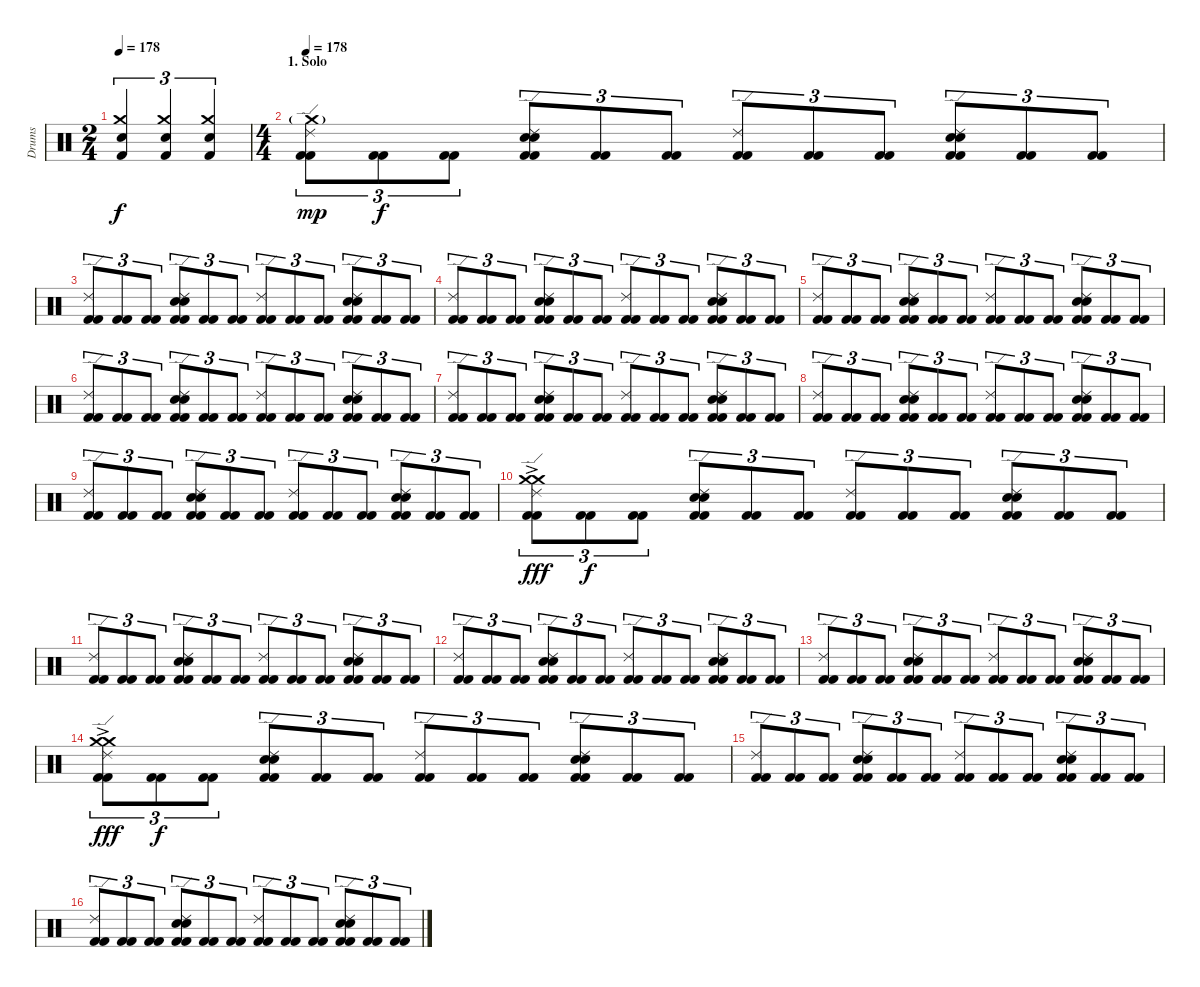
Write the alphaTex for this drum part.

\track ("Drums" "Drums") {instrument percussion}
\staff {score}
\articulation defaults
\ts (2 4)
\tempo 178
\clef neutral
\ks c
("Electric Snare (hit)" "Crash medium (hit)" "Kick (hit) 2").4{tu (3 2) dy f} ("Electric Snare (hit)" "Crash medium (hit)" "Kick (hit) 2").4{tu (3 2)} ("Electric Snare (hit)" "Crash medium (hit)" "Kick (hit) 2").4{tu (3 2)} |
\ts (4 4)
\section ("" "1. Solo")
\tempo 178
("Crash medium (hit)"{g} "Ride (edge) 2" "Kick (hit) 2" "Kick (hit) 2").8{tu (3 2) dy mp} ("Kick (hit) 2" "Kick (hit) 2").8{tu (3 2) dy f} ("Kick (hit) 2" "Kick (hit) 2").8{tu (3 2)} ("Ride (edge) 2" "Snare (hit) 2" "Electric Snare (hit)" "Kick (hit) 2" "Kick (hit) 2").8{tu (3 2)} ("Kick (hit) 2" "Kick (hit) 2").8{tu (3 2)} ("Kick (hit) 2" "Kick (hit) 2").8{tu (3 2)} ("Ride (edge) 2" "Kick (hit) 2" "Kick (hit) 2").8{tu (3 2)} ("Kick (hit) 2" "Kick (hit) 2").8{tu (3 2)} ("Kick (hit) 2" "Kick (hit) 2").8{tu (3 2)} ("Ride (edge) 2" "Snare (hit) 2" "Electric Snare (hit)" "Kick (hit) 2" "Kick (hit) 2").8{tu (3 2)} ("Kick (hit) 2" "Kick (hit) 2").8{tu (3 2)} ("Kick (hit) 2" "Kick (hit) 2").8{tu (3 2)} |
("Ride (edge) 2" "Kick (hit) 2" "Kick (hit) 2").8{tu (3 2)} ("Kick (hit) 2" "Kick (hit) 2").8{tu (3 2)} ("Kick (hit) 2" "Kick (hit) 2").8{tu (3 2)} ("Ride (edge) 2" "Snare (hit) 2" "Electric Snare (hit)" "Kick (hit) 2" "Kick (hit) 2").8{tu (3 2)} ("Kick (hit) 2" "Kick (hit) 2").8{tu (3 2)} ("Kick (hit) 2" "Kick (hit) 2").8{tu (3 2)} ("Ride (edge) 2" "Kick (hit) 2" "Kick (hit) 2").8{tu (3 2)} ("Kick (hit) 2" "Kick (hit) 2").8{tu (3 2)} ("Kick (hit) 2" "Kick (hit) 2").8{tu (3 2)} ("Ride (edge) 2" "Snare (hit) 2" "Electric Snare (hit)" "Kick (hit) 2" "Kick (hit) 2").8{tu (3 2)} ("Kick (hit) 2" "Kick (hit) 2").8{tu (3 2)} ("Kick (hit) 2" "Kick (hit) 2").8{tu (3 2)} |
("Ride (edge) 2" "Kick (hit) 2" "Kick (hit) 2").8{tu (3 2)} ("Kick (hit) 2" "Kick (hit) 2").8{tu (3 2)} ("Kick (hit) 2" "Kick (hit) 2").8{tu (3 2)} ("Ride (edge) 2" "Snare (hit) 2" "Electric Snare (hit)" "Kick (hit) 2" "Kick (hit) 2").8{tu (3 2)} ("Kick (hit) 2" "Kick (hit) 2").8{tu (3 2)} ("Kick (hit) 2" "Kick (hit) 2").8{tu (3 2)} ("Ride (edge) 2" "Kick (hit) 2" "Kick (hit) 2").8{tu (3 2)} ("Kick (hit) 2" "Kick (hit) 2").8{tu (3 2)} ("Kick (hit) 2" "Kick (hit) 2").8{tu (3 2)} ("Ride (edge) 2" "Snare (hit) 2" "Electric Snare (hit)" "Kick (hit) 2" "Kick (hit) 2").8{tu (3 2)} ("Kick (hit) 2" "Kick (hit) 2").8{tu (3 2)} ("Kick (hit) 2" "Kick (hit) 2").8{tu (3 2)} |
("Ride (edge) 2" "Kick (hit) 2" "Kick (hit) 2").8{tu (3 2)} ("Kick (hit) 2" "Kick (hit) 2").8{tu (3 2)} ("Kick (hit) 2" "Kick (hit) 2").8{tu (3 2)} ("Ride (edge) 2" "Snare (hit) 2" "Electric Snare (hit)" "Kick (hit) 2" "Kick (hit) 2").8{tu (3 2)} ("Kick (hit) 2" "Kick (hit) 2").8{tu (3 2)} ("Kick (hit) 2" "Kick (hit) 2").8{tu (3 2)} ("Ride (edge) 2" "Kick (hit) 2" "Kick (hit) 2").8{tu (3 2)} ("Kick (hit) 2" "Kick (hit) 2").8{tu (3 2)} ("Kick (hit) 2" "Kick (hit) 2").8{tu (3 2)} ("Ride (edge) 2" "Snare (hit) 2" "Electric Snare (hit)" "Kick (hit) 2" "Kick (hit) 2").8{tu (3 2)} ("Kick (hit) 2" "Kick (hit) 2").8{tu (3 2)} ("Kick (hit) 2" "Kick (hit) 2").8{tu (3 2)} |
("Ride (edge) 2" "Kick (hit) 2" "Kick (hit) 2").8{tu (3 2)} ("Kick (hit) 2" "Kick (hit) 2").8{tu (3 2)} ("Kick (hit) 2" "Kick (hit) 2").8{tu (3 2)} ("Ride (edge) 2" "Snare (hit) 2" "Electric Snare (hit)" "Kick (hit) 2" "Kick (hit) 2").8{tu (3 2)} ("Kick (hit) 2" "Kick (hit) 2").8{tu (3 2)} ("Kick (hit) 2" "Kick (hit) 2").8{tu (3 2)} ("Ride (edge) 2" "Kick (hit) 2" "Kick (hit) 2").8{tu (3 2)} ("Kick (hit) 2" "Kick (hit) 2").8{tu (3 2)} ("Kick (hit) 2" "Kick (hit) 2").8{tu (3 2)} ("Ride (edge) 2" "Snare (hit) 2" "Electric Snare (hit)" "Kick (hit) 2" "Kick (hit) 2").8{tu (3 2)} ("Kick (hit) 2" "Kick (hit) 2").8{tu (3 2)} ("Kick (hit) 2" "Kick (hit) 2").8{tu (3 2)} |
("Ride (edge) 2" "Kick (hit) 2" "Kick (hit) 2").8{tu (3 2)} ("Kick (hit) 2" "Kick (hit) 2").8{tu (3 2)} ("Kick (hit) 2" "Kick (hit) 2").8{tu (3 2)} ("Ride (edge) 2" "Snare (hit) 2" "Electric Snare (hit)" "Kick (hit) 2" "Kick (hit) 2").8{tu (3 2)} ("Kick (hit) 2" "Kick (hit) 2").8{tu (3 2)} ("Kick (hit) 2" "Kick (hit) 2").8{tu (3 2)} ("Ride (edge) 2" "Kick (hit) 2" "Kick (hit) 2").8{tu (3 2)} ("Kick (hit) 2" "Kick (hit) 2").8{tu (3 2)} ("Kick (hit) 2" "Kick (hit) 2").8{tu (3 2)} ("Ride (edge) 2" "Snare (hit) 2" "Electric Snare (hit)" "Kick (hit) 2" "Kick (hit) 2").8{tu (3 2)} ("Kick (hit) 2" "Kick (hit) 2").8{tu (3 2)} ("Kick (hit) 2" "Kick (hit) 2").8{tu (3 2)} |
("Ride (edge) 2" "Kick (hit) 2" "Kick (hit) 2").8{tu (3 2)} ("Kick (hit) 2" "Kick (hit) 2").8{tu (3 2)} ("Kick (hit) 2" "Kick (hit) 2").8{tu (3 2)} ("Ride (edge) 2" "Snare (hit) 2" "Electric Snare (hit)" "Kick (hit) 2" "Kick (hit) 2").8{tu (3 2)} ("Kick (hit) 2" "Kick (hit) 2").8{tu (3 2)} ("Kick (hit) 2" "Kick (hit) 2").8{tu (3 2)} ("Ride (edge) 2" "Kick (hit) 2" "Kick (hit) 2").8{tu (3 2)} ("Kick (hit) 2" "Kick (hit) 2").8{tu (3 2)} ("Kick (hit) 2" "Kick (hit) 2").8{tu (3 2)} ("Ride (edge) 2" "Snare (hit) 2" "Electric Snare (hit)" "Kick (hit) 2" "Kick (hit) 2").8{tu (3 2)} ("Kick (hit) 2" "Kick (hit) 2").8{tu (3 2)} ("Kick (hit) 2" "Kick (hit) 2").8{tu (3 2)} |
("Ride (edge) 2" "Kick (hit) 2" "Kick (hit) 2").8{tu (3 2)} ("Kick (hit) 2" "Kick (hit) 2").8{tu (3 2)} ("Kick (hit) 2" "Kick (hit) 2").8{tu (3 2)} ("Ride (edge) 2" "Snare (hit) 2" "Electric Snare (hit)" "Kick (hit) 2" "Kick (hit) 2").8{tu (3 2)} ("Kick (hit) 2" "Kick (hit) 2").8{tu (3 2)} ("Kick (hit) 2" "Kick (hit) 2").8{tu (3 2)} ("Ride (edge) 2" "Kick (hit) 2" "Kick (hit) 2").8{tu (3 2)} ("Kick (hit) 2" "Kick (hit) 2").8{tu (3 2)} ("Kick (hit) 2" "Kick (hit) 2").8{tu (3 2)} ("Ride (edge) 2" "Snare (hit) 2" "Electric Snare (hit)" "Kick (hit) 2" "Kick (hit) 2").8{tu (3 2)} ("Kick (hit) 2" "Kick (hit) 2").8{tu (3 2)} ("Kick (hit) 2" "Kick (hit) 2").8{tu (3 2)} |
("Crash medium (hit)"{ac} "Crash medium (hit)"{ac} "Ride (edge) 2" "Kick (hit) 2" "Kick (hit) 2").8{tu (3 2) dy fff} ("Kick (hit) 2" "Kick (hit) 2").8{tu (3 2) dy f} ("Kick (hit) 2" "Kick (hit) 2").8{tu (3 2)} ("Ride (edge) 2" "Snare (hit) 2" "Electric Snare (hit)" "Kick (hit) 2" "Kick (hit) 2").8{tu (3 2)} ("Kick (hit) 2" "Kick (hit) 2").8{tu (3 2)} ("Kick (hit) 2" "Kick (hit) 2").8{tu (3 2)} ("Ride (edge) 2" "Kick (hit) 2" "Kick (hit) 2").8{tu (3 2)} ("Kick (hit) 2" "Kick (hit) 2").8{tu (3 2)} ("Kick (hit) 2" "Kick (hit) 2").8{tu (3 2)} ("Ride (edge) 2" "Snare (hit) 2" "Electric Snare (hit)" "Kick (hit) 2" "Kick (hit) 2").8{tu (3 2)} ("Kick (hit) 2" "Kick (hit) 2").8{tu (3 2)} ("Kick (hit) 2" "Kick (hit) 2").8{tu (3 2)} |
("Ride (edge) 2" "Kick (hit) 2" "Kick (hit) 2").8{tu (3 2)} ("Kick (hit) 2" "Kick (hit) 2").8{tu (3 2)} ("Kick (hit) 2" "Kick (hit) 2").8{tu (3 2)} ("Ride (edge) 2" "Snare (hit) 2" "Electric Snare (hit)" "Kick (hit) 2" "Kick (hit) 2").8{tu (3 2)} ("Kick (hit) 2" "Kick (hit) 2").8{tu (3 2)} ("Kick (hit) 2" "Kick (hit) 2").8{tu (3 2)} ("Ride (edge) 2" "Kick (hit) 2" "Kick (hit) 2").8{tu (3 2)} ("Kick (hit) 2" "Kick (hit) 2").8{tu (3 2)} ("Kick (hit) 2" "Kick (hit) 2").8{tu (3 2)} ("Ride (edge) 2" "Snare (hit) 2" "Electric Snare (hit)" "Kick (hit) 2" "Kick (hit) 2").8{tu (3 2)} ("Kick (hit) 2" "Kick (hit) 2").8{tu (3 2)} ("Kick (hit) 2" "Kick (hit) 2").8{tu (3 2)} |
("Ride (edge) 2" "Kick (hit) 2" "Kick (hit) 2").8{tu (3 2)} ("Kick (hit) 2" "Kick (hit) 2").8{tu (3 2)} ("Kick (hit) 2" "Kick (hit) 2").8{tu (3 2)} ("Ride (edge) 2" "Snare (hit) 2" "Electric Snare (hit)" "Kick (hit) 2" "Kick (hit) 2").8{tu (3 2)} ("Kick (hit) 2" "Kick (hit) 2").8{tu (3 2)} ("Kick (hit) 2" "Kick (hit) 2").8{tu (3 2)} ("Ride (edge) 2" "Kick (hit) 2" "Kick (hit) 2").8{tu (3 2)} ("Kick (hit) 2" "Kick (hit) 2").8{tu (3 2)} ("Kick (hit) 2" "Kick (hit) 2").8{tu (3 2)} ("Ride (edge) 2" "Snare (hit) 2" "Electric Snare (hit)" "Kick (hit) 2" "Kick (hit) 2").8{tu (3 2)} ("Kick (hit) 2" "Kick (hit) 2").8{tu (3 2)} ("Kick (hit) 2" "Kick (hit) 2").8{tu (3 2)} |
("Ride (edge) 2" "Kick (hit) 2" "Kick (hit) 2").8{tu (3 2)} ("Kick (hit) 2" "Kick (hit) 2").8{tu (3 2)} ("Kick (hit) 2" "Kick (hit) 2").8{tu (3 2)} ("Ride (edge) 2" "Snare (hit) 2" "Electric Snare (hit)" "Kick (hit) 2" "Kick (hit) 2").8{tu (3 2)} ("Kick (hit) 2" "Kick (hit) 2").8{tu (3 2)} ("Kick (hit) 2" "Kick (hit) 2").8{tu (3 2)} ("Ride (edge) 2" "Kick (hit) 2" "Kick (hit) 2").8{tu (3 2)} ("Kick (hit) 2" "Kick (hit) 2").8{tu (3 2)} ("Kick (hit) 2" "Kick (hit) 2").8{tu (3 2)} ("Ride (edge) 2" "Snare (hit) 2" "Electric Snare (hit)" "Kick (hit) 2" "Kick (hit) 2").8{tu (3 2)} ("Kick (hit) 2" "Kick (hit) 2").8{tu (3 2)} ("Kick (hit) 2" "Kick (hit) 2").8{tu (3 2)} |
("Crash medium (hit)"{ac} "Crash medium (hit)"{ac} "Ride (edge) 2" "Kick (hit) 2" "Kick (hit) 2").8{tu (3 2) dy fff} ("Kick (hit) 2" "Kick (hit) 2").8{tu (3 2) dy f} ("Kick (hit) 2" "Kick (hit) 2").8{tu (3 2)} ("Ride (edge) 2" "Snare (hit) 2" "Electric Snare (hit)" "Kick (hit) 2" "Kick (hit) 2").8{tu (3 2)} ("Kick (hit) 2" "Kick (hit) 2").8{tu (3 2)} ("Kick (hit) 2" "Kick (hit) 2").8{tu (3 2)} ("Ride (edge) 2" "Kick (hit) 2" "Kick (hit) 2").8{tu (3 2)} ("Kick (hit) 2" "Kick (hit) 2").8{tu (3 2)} ("Kick (hit) 2" "Kick (hit) 2").8{tu (3 2)} ("Ride (edge) 2" "Snare (hit) 2" "Electric Snare (hit)" "Kick (hit) 2" "Kick (hit) 2").8{tu (3 2)} ("Kick (hit) 2" "Kick (hit) 2").8{tu (3 2)} ("Kick (hit) 2" "Kick (hit) 2").8{tu (3 2)} |
("Ride (edge) 2" "Kick (hit) 2" "Kick (hit) 2").8{tu (3 2)} ("Kick (hit) 2" "Kick (hit) 2").8{tu (3 2)} ("Kick (hit) 2" "Kick (hit) 2").8{tu (3 2)} ("Ride (edge) 2" "Snare (hit) 2" "Electric Snare (hit)" "Kick (hit) 2" "Kick (hit) 2").8{tu (3 2)} ("Kick (hit) 2" "Kick (hit) 2").8{tu (3 2)} ("Kick (hit) 2" "Kick (hit) 2").8{tu (3 2)} ("Ride (edge) 2" "Kick (hit) 2" "Kick (hit) 2").8{tu (3 2)} ("Kick (hit) 2" "Kick (hit) 2").8{tu (3 2)} ("Kick (hit) 2" "Kick (hit) 2").8{tu (3 2)} ("Ride (edge) 2" "Snare (hit) 2" "Electric Snare (hit)" "Kick (hit) 2" "Kick (hit) 2").8{tu (3 2)} ("Kick (hit) 2" "Kick (hit) 2").8{tu (3 2)} ("Kick (hit) 2" "Kick (hit) 2").8{tu (3 2)} |
("Ride (edge) 2" "Kick (hit) 2" "Kick (hit) 2").8{tu (3 2)} ("Kick (hit) 2" "Kick (hit) 2").8{tu (3 2)} ("Kick (hit) 2" "Kick (hit) 2").8{tu (3 2)} ("Ride (edge) 2" "Snare (hit) 2" "Electric Snare (hit)" "Kick (hit) 2" "Kick (hit) 2").8{tu (3 2)} ("Kick (hit) 2" "Kick (hit) 2").8{tu (3 2)} ("Kick (hit) 2" "Kick (hit) 2").8{tu (3 2)} ("Ride (edge) 2" "Kick (hit) 2" "Kick (hit) 2").8{tu (3 2)} ("Kick (hit) 2" "Kick (hit) 2").8{tu (3 2)} ("Kick (hit) 2" "Kick (hit) 2").8{tu (3 2)} ("Ride (edge) 2" "Snare (hit) 2" "Electric Snare (hit)" "Kick (hit) 2" "Kick (hit) 2").8{tu (3 2)} ("Kick (hit) 2" "Kick (hit) 2").8{tu (3 2)} ("Kick (hit) 2" "Kick (hit) 2").8{tu (3 2)}
